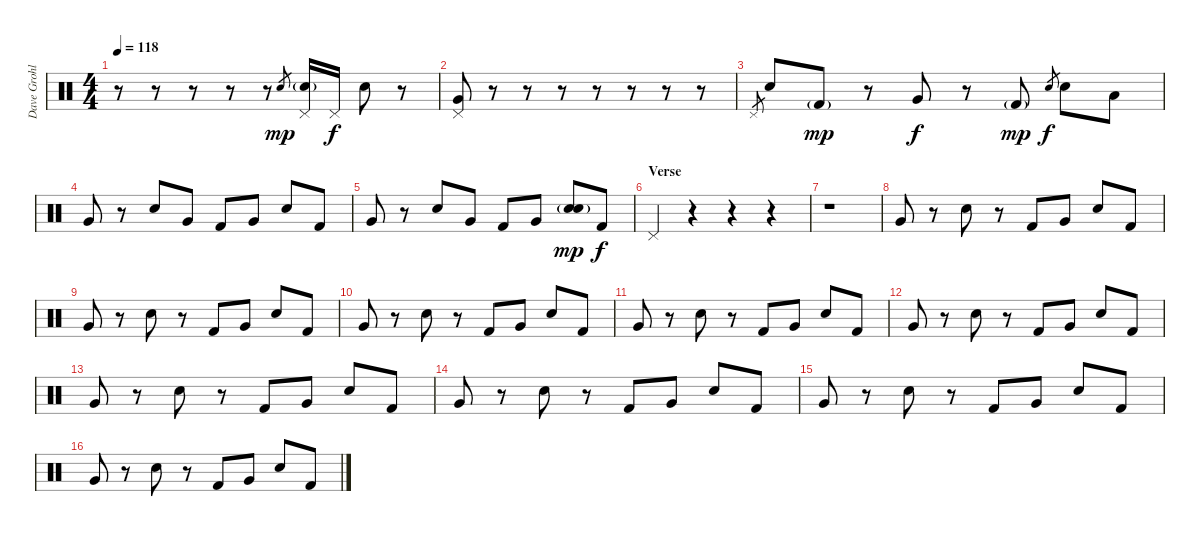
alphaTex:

\track ("Dave Grohl - Drums" "Dave Grohl") {instrument percussion}
\staff {score}
\articulation defaults
\ts (4 4)
\tempo 118
\clef neutral
\ks c
r.8{dy mp volume 12} r.8 r.8 r.8 r.8 "Electric Snare (hit)".8{gr} ("Pedal Hi-Hat (hit)" "Electric Snare (hit)"{g}).16 "Pedal Hi-Hat (hit)".16{dy f} "Electric Snare (hit)".8 r.8 |
("Pedal Hi-Hat (hit)" "Very Low Tom (hit)").8 r.8 r.8 r.8 r.8 r.8 r.8 r.8 |
"Pedal Hi-Hat (hit)".8{gr} "Electric Snare (hit)".8 "Kick (hit) 2"{g}.8{dy mp} r.8 "Very Low Tom (hit)".8{dy f} r.8 "Kick (hit) 2"{g}.8{dy mp} "Electric Snare (hit)".8{gr dy f} "Electric Snare (hit)".8 "Low Floor Tom (hit)".8 |
"Very Low Tom (hit)".8 r.8 "Electric Snare (hit)".8 "Very Low Tom (hit)".8 "Kick (hit) 2".8 "Very Low Tom (hit)".8 "Electric Snare (hit)".8 "Kick (hit) 2".8 |
"Very Low Tom (hit)".8 r.8 "Electric Snare (hit)".8 "Very Low Tom (hit)".8 "Kick (hit) 2".8 "Very Low Tom (hit)".8 ("Electric Snare (hit)"{g} "Snare (hit) 2").8{dy mp} "Kick (hit) 2".8{dy f} |
\section ("" "Verse")
"Pedal Hi-Hat (hit)".4 r.4 r.4 r.4 |
r.1 |
"Very Low Tom (hit)".8{volume 10} r.8 "Electric Snare (hit)".8 r.8 "Kick (hit) 2".8 "Very Low Tom (hit)".8 "Electric Snare (hit)".8 "Kick (hit) 2".8 |
"Very Low Tom (hit)".8 r.8 "Electric Snare (hit)".8 r.8 "Kick (hit) 2".8 "Very Low Tom (hit)".8 "Electric Snare (hit)".8 "Kick (hit) 2".8 |
"Very Low Tom (hit)".8 r.8 "Electric Snare (hit)".8 r.8 "Kick (hit) 2".8 "Very Low Tom (hit)".8 "Electric Snare (hit)".8 "Kick (hit) 2".8 |
"Very Low Tom (hit)".8 r.8 "Electric Snare (hit)".8 r.8 "Kick (hit) 2".8 "Very Low Tom (hit)".8 "Electric Snare (hit)".8 "Kick (hit) 2".8 |
"Very Low Tom (hit)".8 r.8 "Electric Snare (hit)".8 r.8 "Kick (hit) 2".8 "Very Low Tom (hit)".8 "Electric Snare (hit)".8 "Kick (hit) 2".8 |
"Very Low Tom (hit)".8 r.8 "Electric Snare (hit)".8 r.8 "Kick (hit) 2".8 "Very Low Tom (hit)".8 "Electric Snare (hit)".8 "Kick (hit) 2".8 |
"Very Low Tom (hit)".8 r.8 "Electric Snare (hit)".8 r.8 "Kick (hit) 2".8 "Very Low Tom (hit)".8 "Electric Snare (hit)".8 "Kick (hit) 2".8 |
"Very Low Tom (hit)".8 r.8 "Electric Snare (hit)".8 r.8 "Kick (hit) 2".8 "Very Low Tom (hit)".8 "Electric Snare (hit)".8 "Kick (hit) 2".8 |
"Very Low Tom (hit)".8 r.8 "Electric Snare (hit)".8 r.8 "Kick (hit) 2".8 "Very Low Tom (hit)".8 "Electric Snare (hit)".8 "Kick (hit) 2".8
